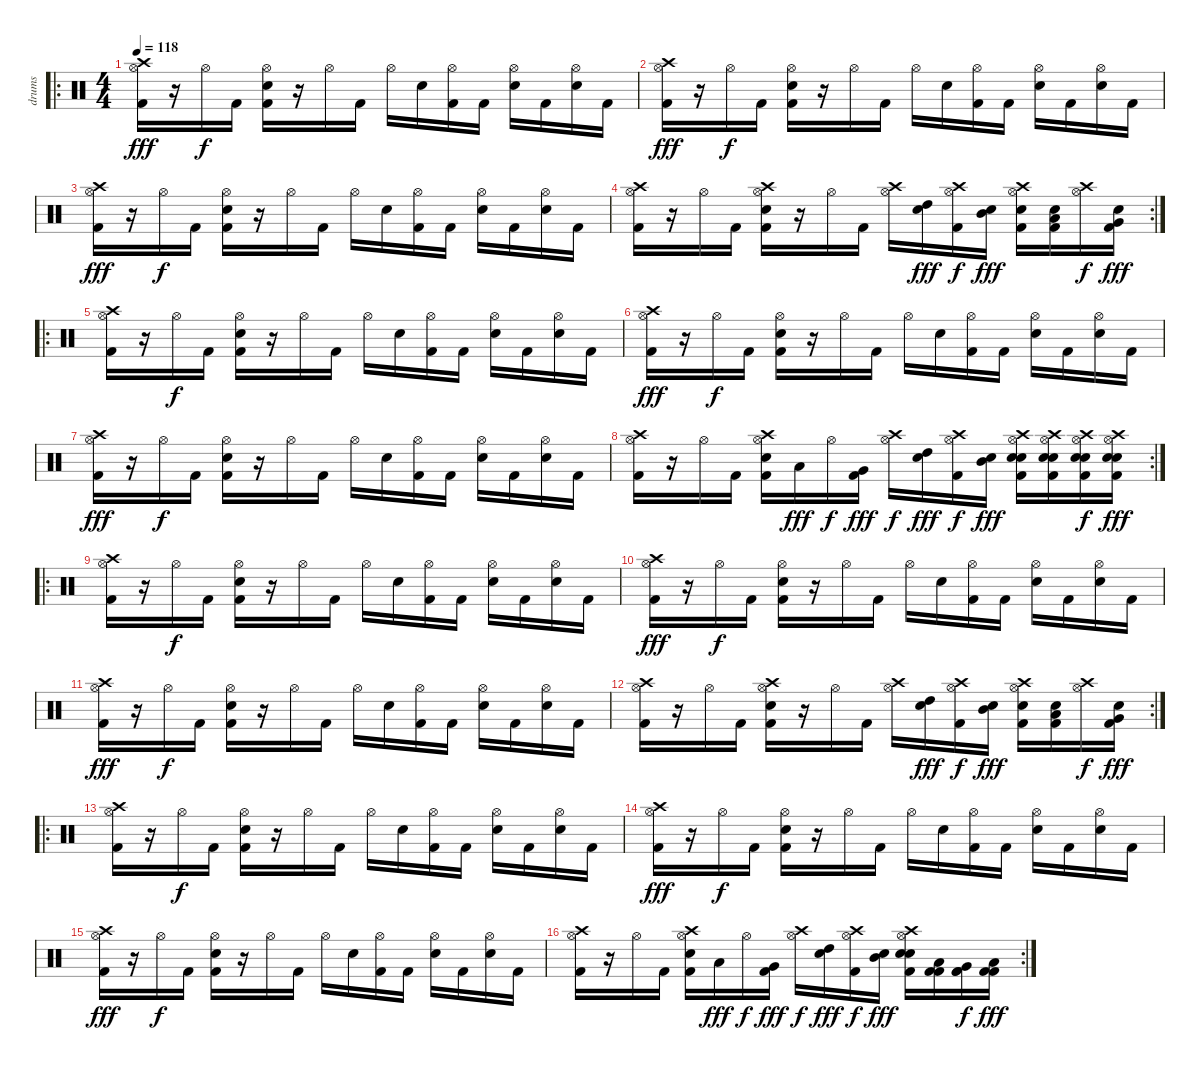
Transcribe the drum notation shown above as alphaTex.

\track ("drums" "drums") {instrument percussion}
\staff {score}
\articulation defaults
\ro
\ts (4 4)
\tempo 118
\clef neutral
\ks c
("Hi-Hat (open)" "Crash high (hit)" "Kick (hit) 2").16{dy fff} r.16 "Hi-Hat (open)".16{dy f} "Kick (hit) 2".16 ("Hi-Hat (open)" "Electric Snare (hit)" "Kick (hit) 2").16 r.16 "Hi-Hat (open)".16 "Kick (hit) 2".16 "Hi-Hat (open)".16 "Electric Snare (hit)".16 ("Hi-Hat (open)" "Kick (hit) 2").16 "Kick (hit) 2".16 ("Hi-Hat (open)" "Electric Snare (hit)").16 "Kick (hit) 2".16 ("Hi-Hat (open)" "Electric Snare (hit)").16 "Kick (hit) 2".16 |
("Hi-Hat (open)" "Crash high (hit)" "Kick (hit) 2").16{dy fff} r.16 "Hi-Hat (open)".16{dy f} "Kick (hit) 2".16 ("Hi-Hat (open)" "Electric Snare (hit)" "Kick (hit) 2").16 r.16 "Hi-Hat (open)".16 "Kick (hit) 2".16 "Hi-Hat (open)".16 "Electric Snare (hit)".16 ("Hi-Hat (open)" "Kick (hit) 2").16 "Kick (hit) 2".16 ("Hi-Hat (open)" "Electric Snare (hit)").16 "Kick (hit) 2".16 ("Hi-Hat (open)" "Electric Snare (hit)").16 "Kick (hit) 2".16 |
("Hi-Hat (open)" "Crash high (hit)" "Kick (hit) 2").16{dy fff} r.16 "Hi-Hat (open)".16{dy f} "Kick (hit) 2".16 ("Hi-Hat (open)" "Electric Snare (hit)" "Kick (hit) 2").16 r.16 "Hi-Hat (open)".16 "Kick (hit) 2".16 "Hi-Hat (open)".16 "Electric Snare (hit)".16 ("Hi-Hat (open)" "Kick (hit) 2").16 "Kick (hit) 2".16 ("Hi-Hat (open)" "Electric Snare (hit)").16 "Kick (hit) 2".16 ("Hi-Hat (open)" "Electric Snare (hit)").16 "Kick (hit) 2".16 |
\rc 2
("Hi-Hat (open)" "Crash high (hit)" "Kick (hit) 2").16 r.16 "Hi-Hat (open)".16 "Kick (hit) 2".16 ("Hi-Hat (open)" "Crash high (hit)" "Electric Snare (hit)" "Kick (hit) 2").16 r.16 "Hi-Hat (open)".16 "Kick (hit) 2".16 ("Hi-Hat (open)" "Crash high (hit)").16 ("High Tom (hit)" "Electric Snare (hit)").16{dy fff} ("Hi-Hat (open)" "Crash high (hit)" "Kick (hit) 2").16{dy f} ("Mid Tom (hit)" "Electric Snare (hit)").16{dy fff} ("Hi-Hat (open)" "Crash high (hit)" "Electric Snare (hit)" "Kick (hit) 2").16 ("Low Tom (hit)" "Electric Snare (hit)" "Kick (hit) 2").16 ("Hi-Hat (open)" "Crash high (hit)").16{dy f} ("Very Low Tom (hit)" "Electric Snare (hit)" "Kick (hit) 2").16{dy fff} |
\ro
("Hi-Hat (open)" "Crash high (hit)" "Kick (hit) 2").16 r.16 "Hi-Hat (open)".16{dy f} "Kick (hit) 2".16 ("Hi-Hat (open)" "Electric Snare (hit)" "Kick (hit) 2").16 r.16 "Hi-Hat (open)".16 "Kick (hit) 2".16 "Hi-Hat (open)".16 "Electric Snare (hit)".16 ("Hi-Hat (open)" "Kick (hit) 2").16 "Kick (hit) 2".16 ("Hi-Hat (open)" "Electric Snare (hit)").16 "Kick (hit) 2".16 ("Hi-Hat (open)" "Electric Snare (hit)").16 "Kick (hit) 2".16 |
("Hi-Hat (open)" "Crash high (hit)" "Kick (hit) 2").16{dy fff} r.16 "Hi-Hat (open)".16{dy f} "Kick (hit) 2".16 ("Hi-Hat (open)" "Electric Snare (hit)" "Kick (hit) 2").16 r.16 "Hi-Hat (open)".16 "Kick (hit) 2".16 "Hi-Hat (open)".16 "Electric Snare (hit)".16 ("Hi-Hat (open)" "Kick (hit) 2").16 "Kick (hit) 2".16 ("Hi-Hat (open)" "Electric Snare (hit)").16 "Kick (hit) 2".16 ("Hi-Hat (open)" "Electric Snare (hit)").16 "Kick (hit) 2".16 |
("Hi-Hat (open)" "Crash high (hit)" "Kick (hit) 2").16{dy fff} r.16 "Hi-Hat (open)".16{dy f} "Kick (hit) 2".16 ("Hi-Hat (open)" "Electric Snare (hit)" "Kick (hit) 2").16 r.16 "Hi-Hat (open)".16 "Kick (hit) 2".16 "Hi-Hat (open)".16 "Electric Snare (hit)".16 ("Hi-Hat (open)" "Kick (hit) 2").16 "Kick (hit) 2".16 ("Hi-Hat (open)" "Electric Snare (hit)").16 "Kick (hit) 2".16 ("Hi-Hat (open)" "Electric Snare (hit)").16 "Kick (hit) 2".16 |
\rc 2
("Hi-Hat (open)" "Crash high (hit)" "Kick (hit) 2").16 r.16 "Hi-Hat (open)".16 "Kick (hit) 2".16 ("Hi-Hat (open)" "Crash high (hit)" "Electric Snare (hit)" "Kick (hit) 2").16 "Low Tom (hit)".16{dy fff} "Hi-Hat (open)".16{dy f} ("Very Low Tom (hit)" "Kick (hit) 2").16{dy fff} ("Hi-Hat (open)" "Crash high (hit)").16{dy f} ("High Tom (hit)" "Electric Snare (hit)").16{dy fff} ("Hi-Hat (open)" "Crash high (hit)" "Kick (hit) 2").16{dy f} ("Mid Tom (hit)" "Electric Snare (hit)").16{dy fff} ("Hi-Hat (open)" "Crash high (hit)" "Electric Snare (hit)" "Electric Snare (hit)" "Kick (hit) 2").16 ("Hi-Hat (open)" "Crash high (hit)" "Electric Snare (hit)" "Electric Snare (hit)" "Kick (hit) 2").16 ("Hi-Hat (open)" "Crash high (hit)" "Electric Snare (hit)" "Electric Snare (hit)" "Kick (hit) 2").16{dy f} ("Hi-Hat (open)" "Crash high (hit)" "Electric Snare (hit)" "Electric Snare (hit)" "Kick (hit) 2").16{dy fff} |
\ro
("Hi-Hat (open)" "Crash high (hit)" "Kick (hit) 2").16 r.16 "Hi-Hat (open)".16{dy f} "Kick (hit) 2".16 ("Hi-Hat (open)" "Electric Snare (hit)" "Kick (hit) 2").16 r.16 "Hi-Hat (open)".16 "Kick (hit) 2".16 "Hi-Hat (open)".16 "Electric Snare (hit)".16 ("Hi-Hat (open)" "Kick (hit) 2").16 "Kick (hit) 2".16 ("Hi-Hat (open)" "Electric Snare (hit)").16 "Kick (hit) 2".16 ("Hi-Hat (open)" "Electric Snare (hit)").16 "Kick (hit) 2".16 |
("Hi-Hat (open)" "Crash high (hit)" "Kick (hit) 2").16{dy fff} r.16 "Hi-Hat (open)".16{dy f} "Kick (hit) 2".16 ("Hi-Hat (open)" "Electric Snare (hit)" "Kick (hit) 2").16 r.16 "Hi-Hat (open)".16 "Kick (hit) 2".16 "Hi-Hat (open)".16 "Electric Snare (hit)".16 ("Hi-Hat (open)" "Kick (hit) 2").16 "Kick (hit) 2".16 ("Hi-Hat (open)" "Electric Snare (hit)").16 "Kick (hit) 2".16 ("Hi-Hat (open)" "Electric Snare (hit)").16 "Kick (hit) 2".16 |
("Hi-Hat (open)" "Crash high (hit)" "Kick (hit) 2").16{dy fff} r.16 "Hi-Hat (open)".16{dy f} "Kick (hit) 2".16 ("Hi-Hat (open)" "Electric Snare (hit)" "Kick (hit) 2").16 r.16 "Hi-Hat (open)".16 "Kick (hit) 2".16 "Hi-Hat (open)".16 "Electric Snare (hit)".16 ("Hi-Hat (open)" "Kick (hit) 2").16 "Kick (hit) 2".16 ("Hi-Hat (open)" "Electric Snare (hit)").16 "Kick (hit) 2".16 ("Hi-Hat (open)" "Electric Snare (hit)").16 "Kick (hit) 2".16 |
\rc 2
("Hi-Hat (open)" "Crash high (hit)" "Kick (hit) 2").16 r.16 "Hi-Hat (open)".16 "Kick (hit) 2".16 ("Hi-Hat (open)" "Crash high (hit)" "Electric Snare (hit)" "Kick (hit) 2").16 r.16 "Hi-Hat (open)".16 "Kick (hit) 2".16 ("Hi-Hat (open)" "Crash high (hit)").16 ("High Tom (hit)" "Electric Snare (hit)").16{dy fff} ("Hi-Hat (open)" "Crash high (hit)" "Kick (hit) 2").16{dy f} ("Mid Tom (hit)" "Electric Snare (hit)").16{dy fff} ("Hi-Hat (open)" "Crash high (hit)" "Electric Snare (hit)" "Kick (hit) 2").16 ("Low Tom (hit)" "Electric Snare (hit)" "Kick (hit) 2").16 ("Hi-Hat (open)" "Crash high (hit)").16{dy f} ("Very Low Tom (hit)" "Electric Snare (hit)" "Kick (hit) 2").16{dy fff} |
\ro
("Hi-Hat (open)" "Crash high (hit)" "Kick (hit) 2").16 r.16 "Hi-Hat (open)".16{dy f} "Kick (hit) 2".16 ("Hi-Hat (open)" "Electric Snare (hit)" "Kick (hit) 2").16 r.16 "Hi-Hat (open)".16 "Kick (hit) 2".16 "Hi-Hat (open)".16 "Electric Snare (hit)".16 ("Hi-Hat (open)" "Kick (hit) 2").16 "Kick (hit) 2".16 ("Hi-Hat (open)" "Electric Snare (hit)").16 "Kick (hit) 2".16 ("Hi-Hat (open)" "Electric Snare (hit)").16 "Kick (hit) 2".16 |
("Hi-Hat (open)" "Crash high (hit)" "Kick (hit) 2").16{dy fff} r.16 "Hi-Hat (open)".16{dy f} "Kick (hit) 2".16 ("Hi-Hat (open)" "Electric Snare (hit)" "Kick (hit) 2").16 r.16 "Hi-Hat (open)".16 "Kick (hit) 2".16 "Hi-Hat (open)".16 "Electric Snare (hit)".16 ("Hi-Hat (open)" "Kick (hit) 2").16 "Kick (hit) 2".16 ("Hi-Hat (open)" "Electric Snare (hit)").16 "Kick (hit) 2".16 ("Hi-Hat (open)" "Electric Snare (hit)").16 "Kick (hit) 2".16 |
("Hi-Hat (open)" "Crash high (hit)" "Kick (hit) 2").16{dy fff} r.16 "Hi-Hat (open)".16{dy f} "Kick (hit) 2".16 ("Hi-Hat (open)" "Electric Snare (hit)" "Kick (hit) 2").16 r.16 "Hi-Hat (open)".16 "Kick (hit) 2".16 "Hi-Hat (open)".16 "Electric Snare (hit)".16 ("Hi-Hat (open)" "Kick (hit) 2").16 "Kick (hit) 2".16 ("Hi-Hat (open)" "Electric Snare (hit)").16 "Kick (hit) 2".16 ("Hi-Hat (open)" "Electric Snare (hit)").16 "Kick (hit) 2".16 |
\rc 2
("Hi-Hat (open)" "Crash high (hit)" "Kick (hit) 2").16 r.16 "Hi-Hat (open)".16 "Kick (hit) 2".16 ("Hi-Hat (open)" "Crash high (hit)" "Electric Snare (hit)" "Kick (hit) 2").16 "Low Tom (hit)".16{dy fff} "Hi-Hat (open)".16{dy f} ("Very Low Tom (hit)" "Kick (hit) 2").16{dy fff} ("Hi-Hat (open)" "Crash high (hit)").16{dy f} ("High Tom (hit)" "Electric Snare (hit)").16{dy fff} ("Hi-Hat (open)" "Crash high (hit)" "Kick (hit) 2").16{dy f} ("Mid Tom (hit)" "Electric Snare (hit)").16{dy fff} ("Hi-Hat (open)" "Crash high (hit)" "Electric Snare (hit)" "Electric Snare (hit)" "Kick (hit) 2").16 ("Kick (hit) 2" "Low Tom (hit)" "Kick (hit) 2").16 ("Kick (hit) 2" "Very Low Tom (hit)" "Kick (hit) 2").16{dy f} ("Kick (hit) 2" "Low Floor Tom (hit)" "Kick (hit) 2").16{dy fff}
